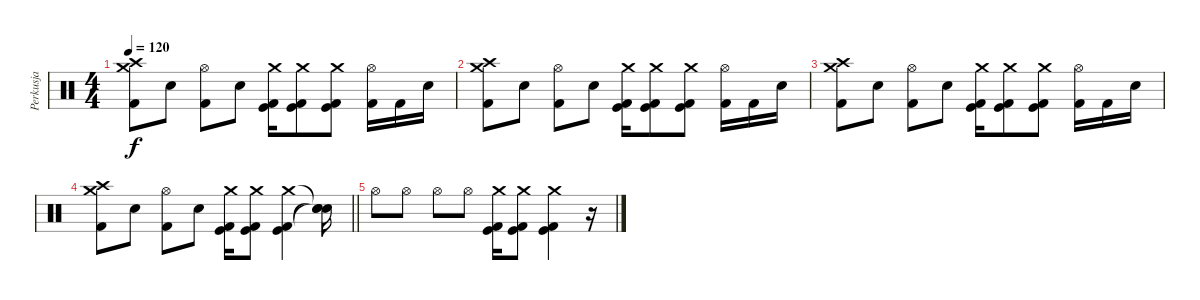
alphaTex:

\track ("Perkusja" "Perkusja") {instrument percussion}
\staff {score}
\articulation defaults
\ts (4 4)
\tempo 120
\clef neutral
\ks c
("Crash high (hit)" "Crash medium (hit)" "Kick (hit) 2").8{dy f} "Electric Snare (hit)".8 ("Hi-Hat (open)" "Kick (hit) 2").8 "Electric Snare (hit)".8 ("Crash medium (hit)" "Kick (hit)" "Kick (hit) 2").16 ("Crash medium (hit)" "Kick (hit)" "Kick (hit) 2").8 ("Crash medium (hit)" "Kick (hit)" "Kick (hit) 2").8 ("Hi-Hat (open)" "Kick (hit) 2").16 "Kick (hit) 2".16 "Electric Snare (hit)".16 |
("Crash high (hit)" "Crash medium (hit)" "Kick (hit) 2").8 "Electric Snare (hit)".8 ("Hi-Hat (open)" "Kick (hit) 2").8 "Electric Snare (hit)".8 ("Crash medium (hit)" "Kick (hit)" "Kick (hit) 2").16 ("Crash medium (hit)" "Kick (hit)" "Kick (hit) 2").8 ("Crash medium (hit)" "Kick (hit)" "Kick (hit) 2").8 ("Hi-Hat (open)" "Kick (hit) 2").16 "Kick (hit) 2".16 "Electric Snare (hit)".16 |
("Crash high (hit)" "Crash medium (hit)" "Kick (hit) 2").8 "Electric Snare (hit)".8 ("Hi-Hat (open)" "Kick (hit) 2").8 "Electric Snare (hit)".8 ("Crash medium (hit)" "Kick (hit)" "Kick (hit) 2").16 ("Crash medium (hit)" "Kick (hit)" "Kick (hit) 2").8 ("Crash medium (hit)" "Kick (hit)" "Kick (hit) 2").8 ("Hi-Hat (open)" "Kick (hit) 2").16 "Kick (hit) 2".16 "Electric Snare (hit)".16 |
\barLineRight lightlight
("Crash high (hit)" "Crash medium (hit)" "Kick (hit) 2").8 "Electric Snare (hit)".8 ("Hi-Hat (open)" "Kick (hit) 2").8 "Electric Snare (hit)".8 ("Crash medium (hit)" "Kick (hit)" "Kick (hit) 2").16 ("Crash medium (hit)" "Kick (hit)" "Kick (hit) 2").8 ("Crash medium (hit)" "Kick (hit)" "Kick (hit) 2").4 ("Snare (hit)"{t} "Snare (hit)"{t} "Snare (hit)"{t}).16 |
"Hi-Hat (open)".8 "Hi-Hat (open)".8 "Hi-Hat (open)".8 "Hi-Hat (open)".8 ("Crash medium (hit)" "Kick (hit)" "Kick (hit) 2").16 ("Crash medium (hit)" "Kick (hit)" "Kick (hit) 2").8 ("Crash medium (hit)" "Kick (hit)" "Kick (hit) 2").4 r.16
